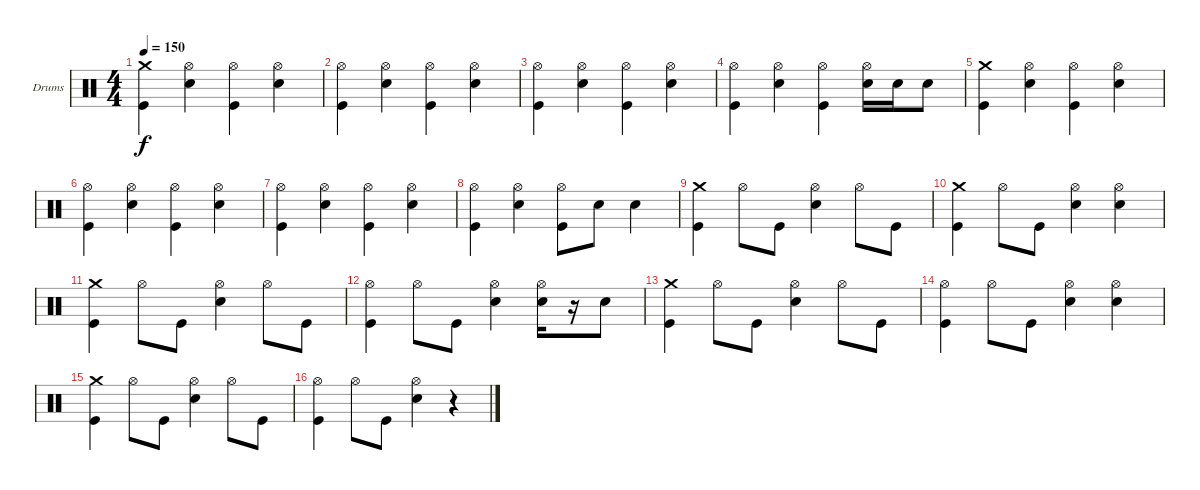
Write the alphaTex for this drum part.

\bracketExtendMode groupsimilarinstruments
\firstSystemTrackNameOrientation horizontal
\otherSystemsTrackNameOrientation horizontal
\track ("Drumkit" "Drums") {instrument percussion}
\staff {score}
\articulation defaults
\ts (4 4)
\tempo 150
\clef neutral
\ks c
("Crash medium (hit)" "Kick (hit)").4{dy f} ("Hi-Hat (open)" "Snare (hit) 2").4 ("Hi-Hat (open)" "Kick (hit)").4 ("Hi-Hat (open)" "Snare (hit) 2").4 |
("Hi-Hat (open)" "Kick (hit)").4 ("Hi-Hat (open)" "Snare (hit) 2").4 ("Hi-Hat (open)" "Kick (hit)").4 ("Hi-Hat (open)" "Snare (hit) 2").4 |
("Hi-Hat (open)" "Kick (hit)").4 ("Hi-Hat (open)" "Snare (hit) 2").4 ("Hi-Hat (open)" "Kick (hit)").4 ("Hi-Hat (open)" "Snare (hit) 2").4 |
("Hi-Hat (open)" "Kick (hit)").4 ("Hi-Hat (open)" "Snare (hit) 2").4 ("Hi-Hat (open)" "Kick (hit)").4 ("Hi-Hat (open)" "Snare (hit) 2").16 "Snare (hit) 2".16 "Snare (hit) 2".8 |
("Crash medium (hit)" "Kick (hit)").4 ("Hi-Hat (open)" "Snare (hit) 2").4 ("Hi-Hat (open)" "Kick (hit)").4 ("Hi-Hat (open)" "Snare (hit) 2").4 |
("Hi-Hat (open)" "Kick (hit)").4 ("Hi-Hat (open)" "Snare (hit) 2").4 ("Hi-Hat (open)" "Kick (hit)").4 ("Hi-Hat (open)" "Snare (hit) 2").4 |
("Hi-Hat (open)" "Kick (hit)").4 ("Hi-Hat (open)" "Snare (hit) 2").4 ("Hi-Hat (open)" "Kick (hit)").4 ("Hi-Hat (open)" "Snare (hit) 2").4 |
("Hi-Hat (open)" "Kick (hit)").4 ("Hi-Hat (open)" "Snare (hit) 2").4 ("Hi-Hat (open)" "Kick (hit)").8 "Snare (hit) 2".8 "Snare (hit) 2".4 |
("Crash medium (hit)" "Kick (hit)").4 "Hi-Hat (open)".8 "Kick (hit)".8 ("Hi-Hat (open)" "Snare (hit) 2").4 "Hi-Hat (open)".8 "Kick (hit)".8 |
("Crash medium (hit)" "Kick (hit)").4 "Hi-Hat (open)".8 "Kick (hit)".8 ("Hi-Hat (open)" "Snare (hit) 2").4 ("Hi-Hat (open)" "Snare (hit) 2").4 |
("Crash medium (hit)" "Kick (hit)").4 "Hi-Hat (open)".8 "Kick (hit)".8 ("Hi-Hat (open)" "Snare (hit) 2").4 "Hi-Hat (open)".8 "Kick (hit)".8 |
("Hi-Hat (open)" "Kick (hit)").4 "Hi-Hat (open)".8 "Kick (hit)".8 ("Hi-Hat (open)" "Snare (hit) 2").4 ("Hi-Hat (open)" "Snare (hit) 2").16 r.16 "Snare (hit) 2".8 |
("Crash medium (hit)" "Kick (hit)").4 "Hi-Hat (open)".8 "Kick (hit)".8 ("Hi-Hat (open)" "Snare (hit) 2").4 "Hi-Hat (open)".8 "Kick (hit)".8 |
("Hi-Hat (open)" "Kick (hit)").4 "Hi-Hat (open)".8 "Kick (hit)".8 ("Hi-Hat (open)" "Snare (hit) 2").4 ("Hi-Hat (open)" "Snare (hit) 2").4 |
("Crash medium (hit)" "Kick (hit)").4 "Hi-Hat (open)".8 "Kick (hit)".8 ("Hi-Hat (open)" "Snare (hit) 2").4 "Hi-Hat (open)".8 "Kick (hit)".8 |
("Hi-Hat (open)" "Kick (hit)").4 "Hi-Hat (open)".8 "Kick (hit)".8 ("Hi-Hat (open)" "Snare (hit) 2").4 r.4
